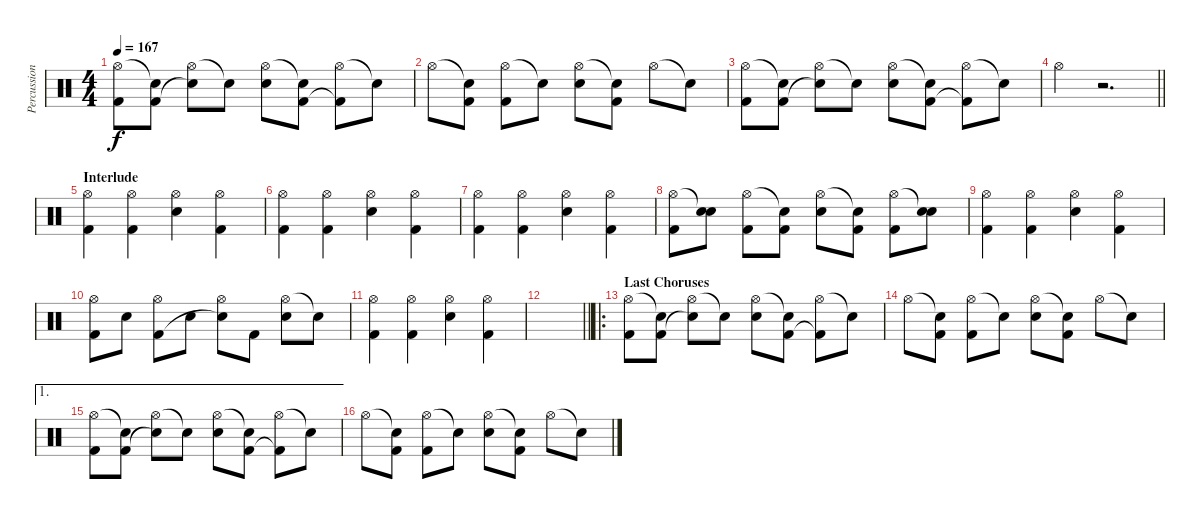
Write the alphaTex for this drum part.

\track ("Percussion" "Percussion") {instrument percussion}
\staff {score}
\articulation defaults
\ts (4 4)
\tempo 167
\clef neutral
\ks c
("Hi-Hat (open)" "Kick (hit) 2").8{dy f} ("Snare (hit)"{t} "Kick (hit) 2").8 ("Hi-Hat (open)" "Snare (hit)"{t}).8 "Snare (hit)"{t}.8 ("Hi-Hat (open)" "Electric Snare (hit)").8 ("Snare (hit)"{t} "Kick (hit) 2").8 ("Hi-Hat (open)" "Kick (hit) 2"{t}).8 "Snare (hit)"{t}.8 |
"Hi-Hat (open)".8 ("Snare (hit)"{t} "Kick (hit) 2").8 ("Hi-Hat (open)" "Kick (hit) 2").8 "Snare (hit)"{t}.8 ("Hi-Hat (open)" "Electric Snare (hit)").8 ("Snare (hit)"{t} "Kick (hit) 2").8 "Hi-Hat (open)".8 "Snare (hit)"{t}.8 |
("Hi-Hat (open)" "Kick (hit) 2").8 ("Snare (hit)"{t} "Kick (hit) 2").8 ("Hi-Hat (open)" "Snare (hit)"{t}).8 "Snare (hit)"{t}.8 ("Hi-Hat (open)" "Electric Snare (hit)").8 ("Snare (hit)"{t} "Kick (hit) 2").8 ("Hi-Hat (open)" "Kick (hit) 2"{t}).8 "Snare (hit)"{t}.8 |
\barLineRight lightlight "Hi-Hat (open)".4
r.2{d} |
\section ("" "Interlude")
("Hi-Hat (open)" "Kick (hit) 2").4 ("Hi-Hat (open)" "Kick (hit) 2").4 ("Hi-Hat (open)" "Electric Snare (hit)").4 ("Hi-Hat (open)" "Kick (hit) 2").4 |
("Hi-Hat (open)" "Kick (hit) 2").4 ("Hi-Hat (open)" "Kick (hit) 2").4 ("Hi-Hat (open)" "Electric Snare (hit)").4 ("Hi-Hat (open)" "Kick (hit) 2").4 |
("Hi-Hat (open)" "Kick (hit) 2").4 ("Hi-Hat (open)" "Kick (hit) 2").4 ("Hi-Hat (open)" "Electric Snare (hit)").4 ("Hi-Hat (open)" "Kick (hit) 2").4 |
("Hi-Hat (open)" "Kick (hit) 2").8 ("Snare (hit)"{t} "Electric Snare (hit)").8 ("Hi-Hat (open)" "Kick (hit) 2").8 ("Snare (hit)"{t} "Kick (hit) 2").8 ("Hi-Hat (open)" "Electric Snare (hit)").8 ("Snare (hit)"{t} "Kick (hit) 2").8 ("Hi-Hat (open)" "Kick (hit) 2").8 ("Snare (hit)"{t} "Electric Snare (hit)").8 |
("Hi-Hat (open)" "Kick (hit) 2").4 ("Hi-Hat (open)" "Kick (hit) 2").4 ("Hi-Hat (open)" "Electric Snare (hit)").4 ("Hi-Hat (open)" "Kick (hit) 2").4 |
("Hi-Hat (open)" "Kick (hit) 2").8 "Electric Snare (hit)".8 ("Hi-Hat (open)" "Kick (hit) 2").8 "Electric Snare (hit)".8 ("Hi-Hat (open)" "Snare (hit)"{t}).8 "Kick (hit) 2".8 ("Hi-Hat (open)" "Electric Snare (hit)").8 "Snare (hit)"{t}.8 |
("Hi-Hat (open)" "Kick (hit) 2").4 ("Hi-Hat (open)" "Kick (hit) 2").4 ("Hi-Hat (open)" "Electric Snare (hit)").4 ("Hi-Hat (open)" "Kick (hit) 2").4 |
\barLineRight lightlight
|
\ro
\section ("" "Last Choruses")
("Hi-Hat (open)" "Kick (hit) 2").8 ("Snare (hit)"{t} "Kick (hit) 2").8 ("Hi-Hat (open)" "Snare (hit)"{t}).8 "Snare (hit)"{t}.8 ("Hi-Hat (open)" "Electric Snare (hit)").8 ("Snare (hit)"{t} "Kick (hit) 2").8 ("Hi-Hat (open)" "Kick (hit) 2"{t}).8 "Snare (hit)"{t}.8 |
"Hi-Hat (open)".8 ("Snare (hit)"{t} "Kick (hit) 2").8 ("Hi-Hat (open)" "Kick (hit) 2").8 "Snare (hit)"{t}.8 ("Hi-Hat (open)" "Electric Snare (hit)").8 ("Snare (hit)"{t} "Kick (hit) 2").8 "Hi-Hat (open)".8 "Snare (hit)"{t}.8 |
\ae 1
("Hi-Hat (open)" "Kick (hit) 2").8 ("Snare (hit)"{t} "Kick (hit) 2").8 ("Hi-Hat (open)" "Snare (hit)"{t}).8 "Snare (hit)"{t}.8 ("Hi-Hat (open)" "Electric Snare (hit)").8 ("Snare (hit)"{t} "Kick (hit) 2").8 ("Hi-Hat (open)" "Kick (hit) 2"{t}).8 "Snare (hit)"{t}.8 |
"Hi-Hat (open)".8 ("Snare (hit)"{t} "Kick (hit) 2").8 ("Hi-Hat (open)" "Kick (hit) 2").8 "Snare (hit)"{t}.8 ("Hi-Hat (open)" "Electric Snare (hit)").8 ("Snare (hit)"{t} "Kick (hit) 2").8 "Hi-Hat (open)".8 "Snare (hit)"{t}.8
